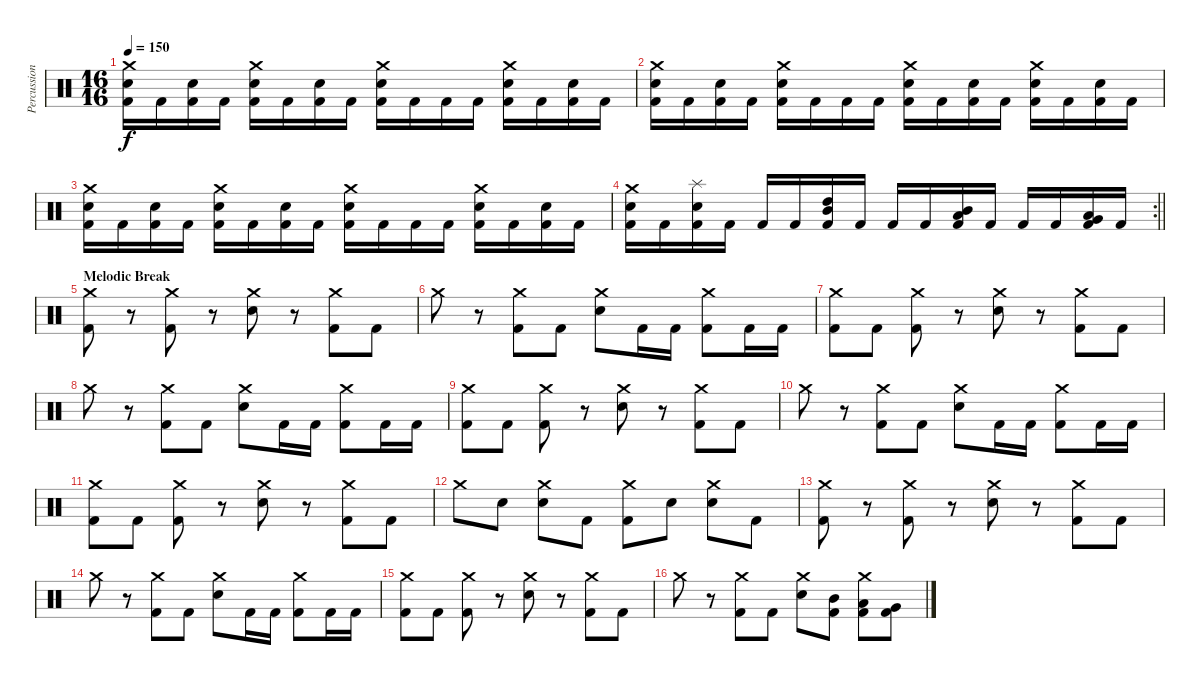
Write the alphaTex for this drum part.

\track ("Percussions" "Percussion") {instrument percussion}
\staff {score}
\articulation defaults
\ts (16 16)
\tempo 150
\clef neutral
\ks c
("Crash medium (hit)" "Electric Snare (hit)" "Kick (hit) 2").16{dy f} "Kick (hit) 2".16 ("Electric Snare (hit)" "Kick (hit) 2").16 "Kick (hit) 2".16 ("Crash medium (hit)" "Electric Snare (hit)" "Kick (hit) 2").16 "Kick (hit) 2".16 ("Electric Snare (hit)" "Kick (hit) 2").16 "Kick (hit) 2".16 ("Crash medium (hit)" "Electric Snare (hit)" "Kick (hit) 2").16 "Kick (hit) 2".16 "Kick (hit) 2".16 "Kick (hit) 2".16 ("Crash medium (hit)" "Electric Snare (hit)" "Kick (hit) 2").16 "Kick (hit) 2".16 ("Electric Snare (hit)" "Kick (hit) 2").16 "Kick (hit) 2".16 |
("Crash medium (hit)" "Electric Snare (hit)" "Kick (hit) 2").16 "Kick (hit) 2".16 ("Electric Snare (hit)" "Kick (hit) 2").16 "Kick (hit) 2".16 ("Crash medium (hit)" "Electric Snare (hit)" "Kick (hit) 2").16 "Kick (hit) 2".16 "Kick (hit) 2".16 "Kick (hit) 2".16 ("Crash medium (hit)" "Electric Snare (hit)" "Kick (hit) 2").16 "Kick (hit) 2".16 ("Electric Snare (hit)" "Kick (hit) 2").16 "Kick (hit) 2".16 ("Crash medium (hit)" "Electric Snare (hit)" "Kick (hit) 2").16 "Kick (hit) 2".16 ("Electric Snare (hit)" "Kick (hit) 2").16 "Kick (hit) 2".16 |
("Crash medium (hit)" "Electric Snare (hit)" "Kick (hit) 2").16 "Kick (hit) 2".16 ("Electric Snare (hit)" "Kick (hit) 2").16 "Kick (hit) 2".16 ("Crash medium (hit)" "Electric Snare (hit)" "Kick (hit) 2").16 "Kick (hit) 2".16 ("Electric Snare (hit)" "Kick (hit) 2").16 "Kick (hit) 2".16 ("Crash medium (hit)" "Electric Snare (hit)" "Kick (hit) 2").16 "Kick (hit) 2".16 "Kick (hit) 2".16 "Kick (hit) 2".16 ("Crash medium (hit)" "Electric Snare (hit)" "Kick (hit) 2").16 "Kick (hit) 2".16 ("Electric Snare (hit)" "Kick (hit) 2").16 "Kick (hit) 2".16 |
\rc 2
\barLineRight lightlight
("Crash medium (hit)" "Electric Snare (hit)" "Kick (hit) 2").16 "Kick (hit) 2".16 ("Splash (hit)" "Electric Snare (hit)" "Kick (hit) 2").16 "Kick (hit) 2".16 "Kick (hit) 2".16 "Kick (hit) 2".16 ("High Tom (hit)" "Mid Tom (hit)" "Kick (hit) 2").16 "Kick (hit) 2".16 "Kick (hit) 2".16 "Kick (hit) 2".16 ("Mid Tom (hit)" "Low Tom (hit)" "Kick (hit) 2").16 "Kick (hit) 2".16 "Kick (hit) 2".16 "Kick (hit) 2".16 ("Low Tom (hit)" "Very Low Tom (hit)" "Kick (hit) 2").16 "Kick (hit) 2".16 |
\section ("" "Melodic Break")
("Crash medium (hit)" "Kick (hit) 2").8 r.8 ("Crash medium (hit)" "Kick (hit) 2").8 r.8 ("Crash medium (hit)" "Electric Snare (hit)").8 r.8 ("Crash medium (hit)" "Kick (hit) 2").8 "Kick (hit) 2".8 |
"Crash medium (hit)".8 r.8 ("Crash medium (hit)" "Kick (hit) 2").8 "Kick (hit) 2".8 ("Crash medium (hit)" "Electric Snare (hit)").8 "Kick (hit) 2".16 "Kick (hit) 2".16 ("Crash medium (hit)" "Kick (hit) 2").8 "Kick (hit) 2".16 "Kick (hit) 2".16 |
("Crash medium (hit)" "Kick (hit) 2").8 "Kick (hit) 2".8 ("Crash medium (hit)" "Kick (hit) 2").8 r.8 ("Crash medium (hit)" "Electric Snare (hit)").8 r.8 ("Crash medium (hit)" "Kick (hit) 2").8 "Kick (hit) 2".8 |
"Crash medium (hit)".8 r.8 ("Crash medium (hit)" "Kick (hit) 2").8 "Kick (hit) 2".8 ("Crash medium (hit)" "Electric Snare (hit)").8 "Kick (hit) 2".16 "Kick (hit) 2".16 ("Crash medium (hit)" "Kick (hit) 2").8 "Kick (hit) 2".16 "Kick (hit) 2".16 |
("Crash medium (hit)" "Kick (hit) 2").8 "Kick (hit) 2".8 ("Crash medium (hit)" "Kick (hit) 2").8 r.8 ("Crash medium (hit)" "Electric Snare (hit)").8 r.8 ("Crash medium (hit)" "Kick (hit) 2").8 "Kick (hit) 2".8 |
"Crash medium (hit)".8 r.8 ("Crash medium (hit)" "Kick (hit) 2").8 "Kick (hit) 2".8 ("Crash medium (hit)" "Electric Snare (hit)").8 "Kick (hit) 2".16 "Kick (hit) 2".16 ("Crash medium (hit)" "Kick (hit) 2").8 "Kick (hit) 2".16 "Kick (hit) 2".16 |
("Crash medium (hit)" "Kick (hit) 2").8 "Kick (hit) 2".8 ("Crash medium (hit)" "Kick (hit) 2").8 r.8 ("Crash medium (hit)" "Electric Snare (hit)").8 r.8 ("Crash medium (hit)" "Kick (hit) 2").8 "Kick (hit) 2".8 |
"Crash medium (hit)".8 "Electric Snare (hit)".8 ("Crash medium (hit)" "Electric Snare (hit)").8 "Kick (hit) 2".8 ("Crash medium (hit)" "Kick (hit) 2").8 "Electric Snare (hit)".8 ("Crash medium (hit)" "Electric Snare (hit)").8 "Kick (hit) 2".8 |
("Crash medium (hit)" "Kick (hit) 2").8 r.8 ("Crash medium (hit)" "Kick (hit) 2").8 r.8 ("Crash medium (hit)" "Electric Snare (hit)").8 r.8 ("Crash medium (hit)" "Kick (hit) 2").8 "Kick (hit) 2".8 |
"Crash medium (hit)".8 r.8 ("Crash medium (hit)" "Kick (hit) 2").8 "Kick (hit) 2".8 ("Crash medium (hit)" "Electric Snare (hit)").8 "Kick (hit) 2".16 "Kick (hit) 2".16 ("Crash medium (hit)" "Kick (hit) 2").8 "Kick (hit) 2".16 "Kick (hit) 2".16 |
("Crash medium (hit)" "Kick (hit) 2").8 "Kick (hit) 2".8 ("Crash medium (hit)" "Kick (hit) 2").8 r.8 ("Crash medium (hit)" "Electric Snare (hit)").8 r.8 ("Crash medium (hit)" "Kick (hit) 2").8 "Kick (hit) 2".8 |
"Crash medium (hit)".8 r.8 ("Crash medium (hit)" "Kick (hit) 2").8 "Kick (hit) 2".8 ("Crash medium (hit)" "Electric Snare (hit)").8 ("Mid Tom (hit)" "Kick (hit) 2").8 ("Crash medium (hit)" "Low Tom (hit)" "Kick (hit) 2").8 ("Very Low Tom (hit)" "Kick (hit) 2").8
